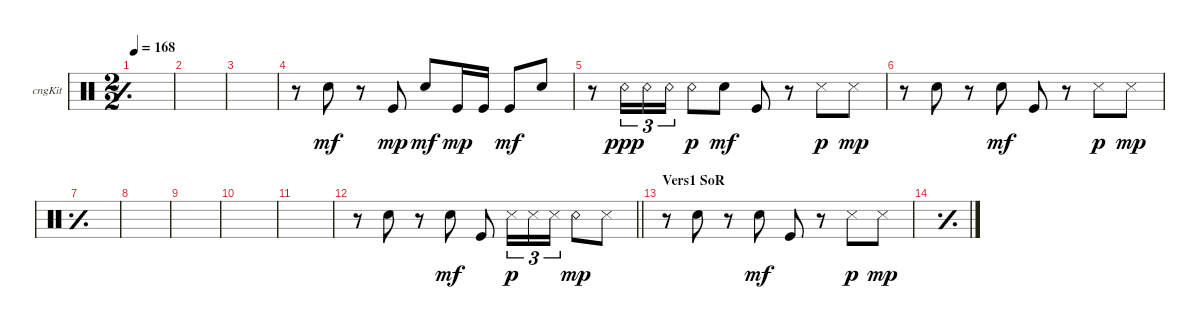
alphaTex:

\bracketExtendMode groupsimilarinstruments
\multiTrackTrackNamePolicy hidden
\firstSystemTrackNameOrientation horizontal
\otherSystemsTrackNameOrientation horizontal
\track ("Congas" "cngKit") {instrument percussion}
\staff {score}
\articulation defaults
\ts (2 2)
\tempo 168
\clef neutral
\simile simple
\ks c
|
|
|
r.8 "Snare (hit) 2".8{dy mf} r.8 "Kick (hit)".8{dy mp} "Snare (hit) 2".8{dy mf} "Kick (hit)".16{dy mp} "Kick (hit)".16 "Kick (hit)".8{dy mf} "Snare (hit) 2".8 |
r.8 "Snare (rim shot)".16{tu (3 2) dy ppp} "Snare (rim shot)".16{tu (3 2)} "Snare (rim shot)".16{tu (3 2)} "Snare (rim shot)".8{dy p} "Snare (hit) 2".8{dy mf} "Kick (hit)".8 r.8 "Snare (side stick) 3".8{dy p} "Snare (side stick) 3".8{dy mp} |
r.8 "Snare (hit) 2".8 r.8 "Snare (hit) 2".8{dy mf} "Kick (hit)".8 r.8 "Snare (side stick) 3".8{dy p} "Snare (side stick) 3".8{dy mp} |
\simile simple
|
|
|
|
|
\simile none
\barLineRight lightlight
r.8 "Snare (hit) 2".8 r.8 "Snare (hit) 2".8{dy mf} "Kick (hit)".8 "Snare (side stick) 3".16{tu (3 2) dy p} "Snare (side stick) 3".16{tu (3 2)} "Snare (side stick) 3".16{tu (3 2)} "Snare (rim shot)".8{dy mp} "Snare (side stick) 3".8 |
\section ("" "Vers1 SoR")
r.8 "Snare (hit) 2".8 r.8 "Snare (hit) 2".8{dy mf} "Kick (hit)".8 r.8 "Snare (side stick) 3".8{dy p} "Snare (side stick) 3".8{dy mp} |
\simile simple
